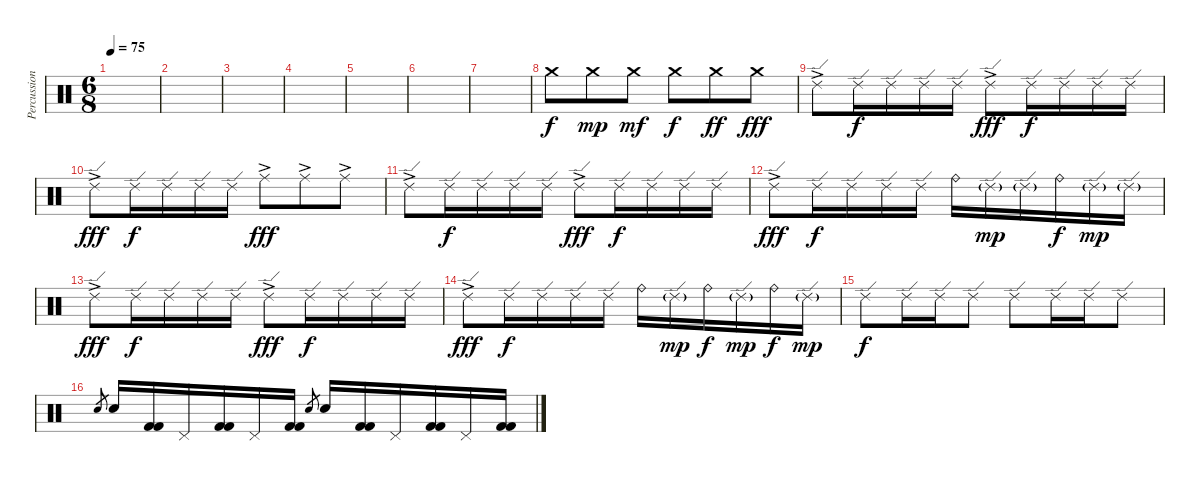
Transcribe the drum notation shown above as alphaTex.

\track ("Percussions" "Percussion") {instrument percussion}
\staff {score}
\articulation defaults
\ts (6 8)
\tempo 75
\clef neutral
\ks c
|
|
|
|
|
|
|
"Crash medium (hit)"{tr (57 64)}.8 "Crash medium (hit)"{tr (57 64)}.8{dy mp} "Crash medium (hit)"{tr (57 64)}.8{dy mf} "Crash medium (hit)"{tr (57 64)}.8{dy f} "Crash medium (hit)"{tr (57 64)}.8{dy ff} "Crash medium (hit)"{tr (57 64)}.8{dy fff} |
"Ride (edge) 2"{ac}.8 "Ride (edge) 2".16{dy f} "Ride (edge) 2".16 "Ride (edge) 2".16 "Ride (edge) 2".16 "Ride (edge) 2"{ac}.8{dy fff} "Ride (edge) 2".16{dy f} "Ride (edge) 2".16 "Ride (edge) 2".16 "Ride (edge) 2".16 |
"Ride (edge) 2"{ac}.8{dy fff} "Ride (edge) 2".16{dy f} "Ride (edge) 2".16 "Ride (edge) 2".16 "Ride (edge) 2".16 "Ride (middle)"{ac}.8{dy fff} "Ride (middle)"{ac}.8 "Ride (middle)"{ac}.8 |
"Ride (edge) 2"{ac}.8 "Ride (edge) 2".16{dy f} "Ride (edge) 2".16 "Ride (edge) 2".16 "Ride (edge) 2".16 "Ride (edge) 2"{ac}.8{dy fff} "Ride (edge) 2".16{dy f} "Ride (edge) 2".16 "Ride (edge) 2".16 "Ride (edge) 2".16 |
"Ride (edge) 2"{ac}.8{dy fff} "Ride (edge) 2".16{dy f} "Ride (edge) 2".16 "Ride (edge) 2".16 "Ride (edge) 2".16 "Ride (bell)".16 "Ride (edge) 2"{g}.16{dy mp} "Ride (edge) 2"{g}.16 "Ride (bell)".16{dy f} "Ride (edge) 2"{g}.16{dy mp} "Ride (edge) 2"{g}.16 |
"Ride (edge) 2"{ac}.8{dy fff} "Ride (edge) 2".16{dy f} "Ride (edge) 2".16 "Ride (edge) 2".16 "Ride (edge) 2".16 "Ride (edge) 2"{ac}.8{dy fff} "Ride (edge) 2".16{dy f} "Ride (edge) 2".16 "Ride (edge) 2".16 "Ride (edge) 2".16 |
"Ride (edge) 2"{ac}.8{dy fff} "Ride (edge) 2".16{dy f} "Ride (edge) 2".16 "Ride (edge) 2".16 "Ride (edge) 2".16 "Ride (bell)".16 "Ride (edge) 2"{g}.16{dy mp} "Ride (bell)".16{dy f} "Ride (edge) 2"{g}.16{dy mp} "Ride (bell)".16{dy f} "Ride (edge) 2"{g}.16{dy mp} |
"Ride (edge) 2".8{dy f} "Ride (edge) 2".16 "Ride (edge) 2".16 "Ride (edge) 2".8 "Ride (edge) 2".8 "Ride (edge) 2".16 "Ride (edge) 2".16 "Ride (edge) 2".8 |
"Electric Snare (hit)".8{gr} "Electric Snare (hit)".16 ("Kick (hit) 2" "Kick (hit) 2").16 "Pedal Hi-Hat (hit)".16 ("Kick (hit) 2" "Kick (hit) 2").16 "Pedal Hi-Hat (hit)".16 ("Kick (hit) 2" "Kick (hit) 2").16 "Electric Snare (hit)".8{gr} "Electric Snare (hit)".16 ("Kick (hit) 2" "Kick (hit) 2").16 "Pedal Hi-Hat (hit)".16 ("Kick (hit) 2" "Kick (hit) 2").16 "Pedal Hi-Hat (hit)".16 ("Kick (hit) 2" "Kick (hit) 2").16
